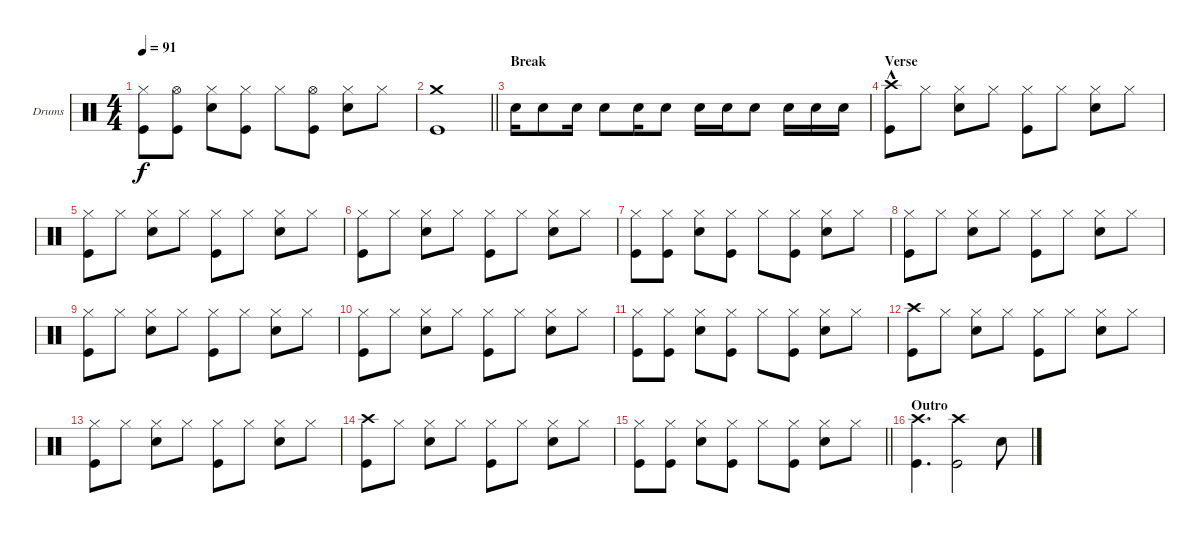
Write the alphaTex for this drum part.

\bracketExtendMode groupsimilarinstruments
\firstSystemTrackNameOrientation horizontal
\otherSystemsTrackNameOrientation horizontal
\track ("Fabrizio" "Drums") {instrument percussion}
\staff {score}
\articulation defaults
\ts (4 4)
\tempo 91
\clef neutral
\ks c
("Hi-Hat (closed)" "Kick (hit)").8{dy f} ("Hi-Hat (open)" "Kick (hit)").8 ("Snare (hit) 2" "Hi-Hat (closed)").8 ("Hi-Hat (closed)" "Kick (hit)").8 "Hi-Hat (closed)".8 ("Hi-Hat (open)" "Kick (hit)").8 ("Snare (hit) 2" "Hi-Hat (closed)").8 "Hi-Hat (closed)".8 |
\barLineRight lightlight
("Crash medium (hit)" "Kick (hit)").1 |
\section ("" "Break")
"Snare (hit) 2".16 "Snare (hit) 2".8 "Snare (hit) 2".16 "Snare (hit) 2".8 "Snare (hit) 2".16 "Snare (hit) 2".8 "Snare (hit) 2".16 "Snare (hit) 2".16 "Snare (hit) 2".8 "Snare (hit) 2".16 "Snare (hit) 2".16 "Snare (hit) 2".16 |
\section ("" "Verse")
("Crash high (hit)"{hac} "Kick (hit)").8 "Hi-Hat (closed)".8 ("Hi-Hat (closed)" "Snare (hit) 2").8 "Hi-Hat (closed)".8 ("Hi-Hat (closed)" "Kick (hit)").8 "Hi-Hat (closed)".8 ("Hi-Hat (closed)" "Snare (hit) 2").8 "Hi-Hat (closed)".8 |
("Hi-Hat (closed)" "Kick (hit)").8 "Hi-Hat (closed)".8 ("Hi-Hat (closed)" "Snare (hit) 2").8 "Hi-Hat (closed)".8 ("Hi-Hat (closed)" "Kick (hit)").8 "Hi-Hat (closed)".8 ("Hi-Hat (closed)" "Snare (hit) 2").8 "Hi-Hat (closed)".8 |
("Hi-Hat (closed)" "Kick (hit)").8 "Hi-Hat (closed)".8 ("Hi-Hat (closed)" "Snare (hit) 2").8 "Hi-Hat (closed)".8 ("Hi-Hat (closed)" "Kick (hit)").8 "Hi-Hat (closed)".8 ("Hi-Hat (closed)" "Snare (hit) 2").8 "Hi-Hat (closed)".8 |
("Hi-Hat (closed)" "Kick (hit)").8 ("Hi-Hat (closed)" "Kick (hit)").8 ("Hi-Hat (closed)" "Snare (hit) 2").8 ("Hi-Hat (closed)" "Kick (hit)").8 "Hi-Hat (closed)".8 ("Hi-Hat (closed)" "Kick (hit)").8 ("Hi-Hat (closed)" "Snare (hit) 2").8 "Hi-Hat (closed)".8 |
("Hi-Hat (closed)" "Kick (hit)").8 "Hi-Hat (closed)".8 ("Hi-Hat (closed)" "Snare (hit) 2").8 "Hi-Hat (closed)".8 ("Hi-Hat (closed)" "Kick (hit)").8 "Hi-Hat (closed)".8 ("Hi-Hat (closed)" "Snare (hit) 2").8 "Hi-Hat (closed)".8 |
("Hi-Hat (closed)" "Kick (hit)").8 "Hi-Hat (closed)".8 ("Hi-Hat (closed)" "Snare (hit) 2").8 "Hi-Hat (closed)".8 ("Hi-Hat (closed)" "Kick (hit)").8 "Hi-Hat (closed)".8 ("Hi-Hat (closed)" "Snare (hit) 2").8 "Hi-Hat (closed)".8 |
("Hi-Hat (closed)" "Kick (hit)").8 "Hi-Hat (closed)".8 ("Hi-Hat (closed)" "Snare (hit) 2").8 "Hi-Hat (closed)".8 ("Hi-Hat (closed)" "Kick (hit)").8 "Hi-Hat (closed)".8 ("Hi-Hat (closed)" "Snare (hit) 2").8 "Hi-Hat (closed)".8 |
("Hi-Hat (closed)" "Kick (hit)").8 ("Hi-Hat (closed)" "Kick (hit)").8 ("Hi-Hat (closed)" "Snare (hit) 2").8 ("Hi-Hat (closed)" "Kick (hit)").8 "Hi-Hat (closed)".8 ("Hi-Hat (closed)" "Kick (hit)").8 ("Hi-Hat (closed)" "Snare (hit) 2").8 "Hi-Hat (closed)".8 |
("Crash high (hit)" "Kick (hit)").8 "Hi-Hat (closed)".8 ("Hi-Hat (closed)" "Snare (hit) 2").8 "Hi-Hat (closed)".8 ("Hi-Hat (closed)" "Kick (hit)").8 "Hi-Hat (closed)".8 ("Hi-Hat (closed)" "Snare (hit) 2").8 "Hi-Hat (closed)".8 |
("Hi-Hat (closed)" "Kick (hit)").8 "Hi-Hat (closed)".8 ("Hi-Hat (closed)" "Snare (hit) 2").8 "Hi-Hat (closed)".8 ("Hi-Hat (closed)" "Kick (hit)").8 "Hi-Hat (closed)".8 ("Hi-Hat (closed)" "Snare (hit) 2").8 "Hi-Hat (closed)".8 |
("Crash high (hit)" "Kick (hit)").8 "Hi-Hat (closed)".8 ("Hi-Hat (closed)" "Snare (hit) 2").8 "Hi-Hat (closed)".8 ("Hi-Hat (closed)" "Kick (hit)").8 "Hi-Hat (closed)".8 ("Hi-Hat (closed)" "Snare (hit) 2").8 "Hi-Hat (closed)".8 |
\barLineRight lightlight
("Hi-Hat (closed)" "Kick (hit)").8 ("Hi-Hat (closed)" "Kick (hit)").8 ("Hi-Hat (closed)" "Snare (hit) 2").8 ("Hi-Hat (closed)" "Kick (hit)").8 "Hi-Hat (closed)".8 ("Hi-Hat (closed)" "Kick (hit)").8 ("Hi-Hat (closed)" "Snare (hit) 2").8 "Hi-Hat (closed)".8 |
\section ("" "Outro")
("Crash high (hit)" "Kick (hit)").4{d} ("Crash high (hit)" "Kick (hit)").2 "Snare (hit) 2".8
